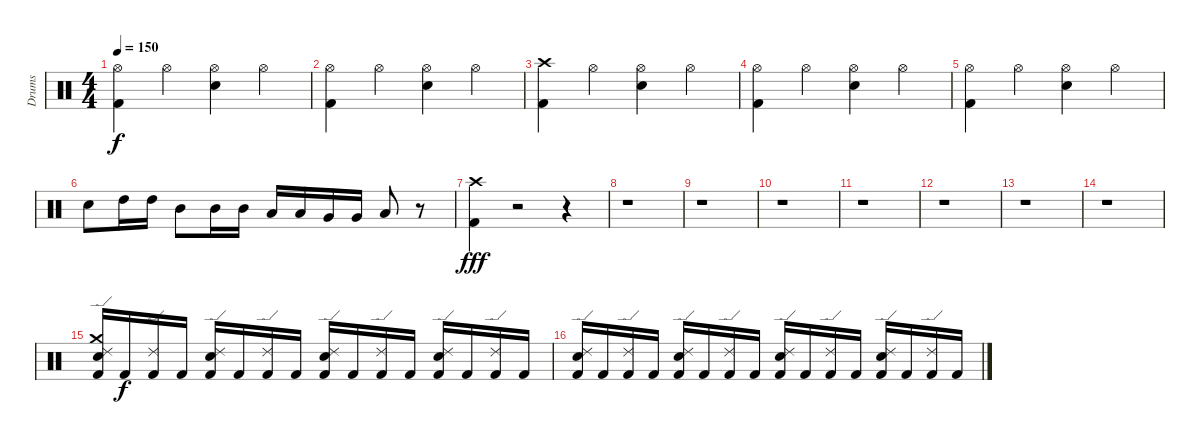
\track ("Drums" "Drums") {instrument percussion}
\staff {score}
\articulation defaults
\ts (4 4)
\tempo 150
\clef neutral
\ks c
("Hi-Hat (open)" "Kick (hit) 2").4{dy f} "Hi-Hat (open)".4 ("Hi-Hat (open)" "Electric Snare (hit)").4 "Hi-Hat (open)".4 |
("Hi-Hat (open)" "Kick (hit) 2").4 "Hi-Hat (open)".4 ("Hi-Hat (open)" "Electric Snare (hit)").4 "Hi-Hat (open)".4 |
("Crash high (hit)" "Kick (hit) 2").4 "Hi-Hat (open)".4 ("Hi-Hat (open)" "Electric Snare (hit)").4 "Hi-Hat (open)".4 |
("Hi-Hat (open)" "Kick (hit) 2").4 "Hi-Hat (open)".4 ("Hi-Hat (open)" "Electric Snare (hit)").4 "Hi-Hat (open)".4 |
("Hi-Hat (open)" "Kick (hit) 2").4 "Hi-Hat (open)".4 ("Hi-Hat (open)" "Electric Snare (hit)").4 "Hi-Hat (open)".4 |
"Electric Snare (hit)".8 "High Tom (hit)".16 "High Tom (hit)".16 "Mid Tom (hit)".8 "Mid Tom (hit)".16 "Mid Tom (hit)".16 "Low Tom (hit)".16 "Low Tom (hit)".16 "Very Low Tom (hit)".16 "Very Low Tom (hit)".16 "Low Floor Tom (hit)".8 r.8 |
("Crash high (hit)" "Kick (hit) 2").4{dy fff} r.2 r.4 |
r.1 |
r.1 |
r.1 |
r.1 |
r.1 |
r.1 |
r.1 |
("Crash medium (hit)" "Ride (edge) 2" "Electric Snare (hit)" "Kick (hit) 2").16 "Kick (hit) 2".16{dy f} ("Ride (edge) 2" "Kick (hit) 2").16 "Kick (hit) 2".16 ("Ride (edge) 2" "Electric Snare (hit)" "Kick (hit) 2").16 "Kick (hit) 2".16 ("Ride (edge) 2" "Kick (hit) 2").16 "Kick (hit) 2".16 ("Ride (edge) 2" "Electric Snare (hit)" "Kick (hit) 2").16 "Kick (hit) 2".16 ("Ride (edge) 2" "Kick (hit) 2").16 "Kick (hit) 2".16 ("Ride (edge) 2" "Electric Snare (hit)" "Kick (hit) 2").16 "Kick (hit) 2".16 ("Ride (edge) 2" "Kick (hit) 2").16 "Kick (hit) 2".16 |
("Ride (edge) 2" "Electric Snare (hit)" "Kick (hit) 2").16 "Kick (hit) 2".16 ("Ride (edge) 2" "Kick (hit) 2").16 "Kick (hit) 2".16 ("Ride (edge) 2" "Electric Snare (hit)" "Kick (hit) 2").16 "Kick (hit) 2".16 ("Ride (edge) 2" "Kick (hit) 2").16 "Kick (hit) 2".16 ("Ride (edge) 2" "Electric Snare (hit)" "Kick (hit) 2").16 "Kick (hit) 2".16 ("Ride (edge) 2" "Kick (hit) 2").16 "Kick (hit) 2".16 ("Ride (edge) 2" "Electric Snare (hit)" "Kick (hit) 2").16 "Kick (hit) 2".16 ("Ride (edge) 2" "Kick (hit) 2").16 "Kick (hit) 2".16
